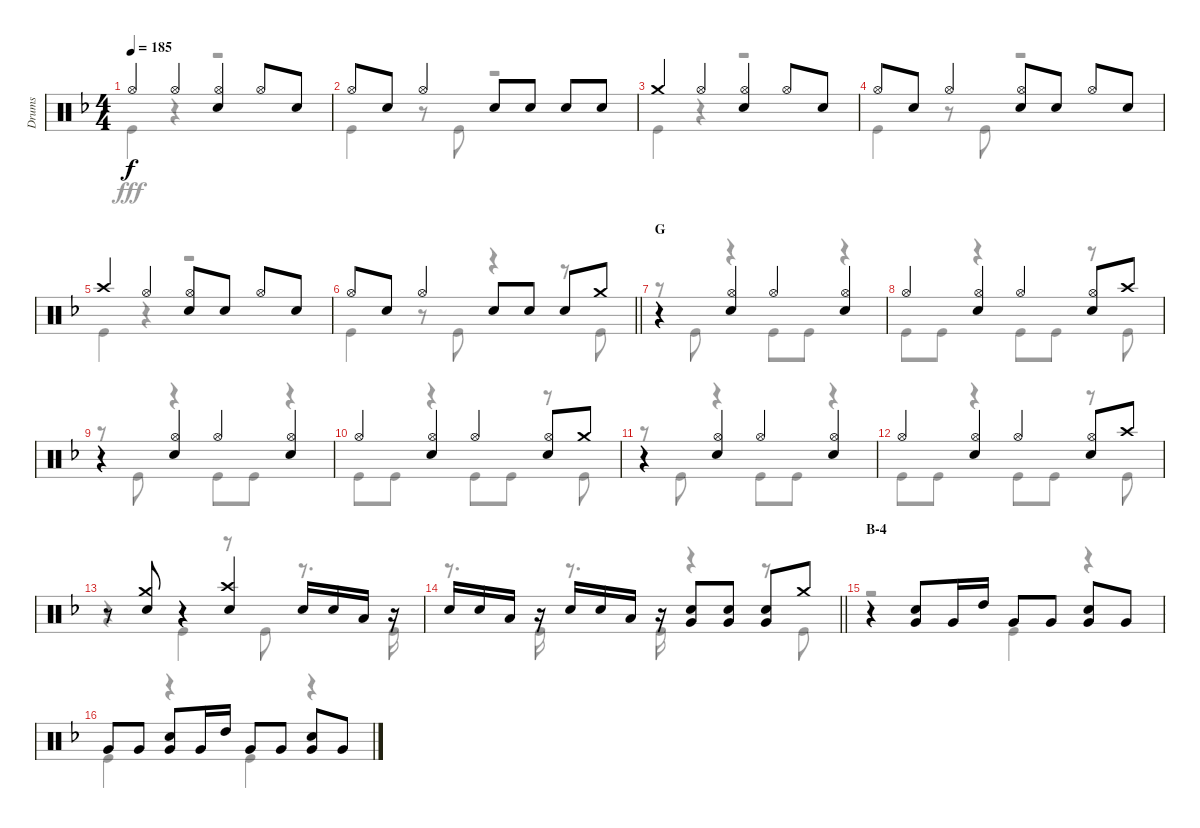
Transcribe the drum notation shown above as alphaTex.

\track ("Drums" "Drums") {instrument percussion}
\staff {score}
\articulation defaults
\voice
\ts (4 4)
\tempo 185
\clef neutral
\ks f "Hi-Hat (open)".4{dy f} "Hi-Hat (open)".4
("Hi-Hat (open)" "Snare (hit) 2").4 "Hi-Hat (open)".8 "Snare (hit) 2".8 |
"Hi-Hat (open)".8 "Snare (hit) 2".8 "Hi-Hat (open)".4 "Snare (hit) 2".8 "Snare (hit) 2".8 "Snare (hit) 2".8 "Snare (hit) 2".8 |
"Crash medium (hit)".4 "Hi-Hat (open)".4 ("Hi-Hat (open)" "Snare (hit) 2").4 "Hi-Hat (open)".8 "Snare (hit) 2".8 |
"Hi-Hat (open)".8 "Snare (hit) 2".8 "Hi-Hat (open)".4 ("Hi-Hat (open)" "Snare (hit) 2").8 "Snare (hit) 2".8 "Hi-Hat (open)".8 "Snare (hit) 2".8 |
"Crash high (hit)".4 "Hi-Hat (open)".4 ("Hi-Hat (open)" "Snare (hit) 2").8 "Snare (hit) 2".8 "Hi-Hat (open)".8 "Snare (hit) 2".8 |
\barLineRight lightlight "Hi-Hat (open)".8 "Snare (hit) 2".8 "Hi-Hat (open)".4 "Snare (hit) 2".8 "Snare (hit) 2".8 "Snare (hit) 2".8 "Crash medium (hit)".8
|
\section ("" "G")
r.4 ("Hi-Hat (open)" "Snare (hit) 2").4 "Hi-Hat (open)".4 ("Hi-Hat (open)" "Snare (hit) 2").4 |
"Hi-Hat (open)".4 ("Hi-Hat (open)" "Snare (hit) 2").4 "Hi-Hat (open)".4 ("Hi-Hat (open)" "Snare (hit) 2").8 "Crash high (hit)".8 |
r.4 ("Hi-Hat (open)" "Snare (hit) 2").4 "Hi-Hat (open)".4 ("Hi-Hat (open)" "Snare (hit) 2").4 |
"Hi-Hat (open)".4 ("Hi-Hat (open)" "Snare (hit) 2").4 "Hi-Hat (open)".4 ("Hi-Hat (open)" "Snare (hit) 2").8 "Crash medium (hit)".8 |
r.4 ("Hi-Hat (open)" "Snare (hit) 2").4 "Hi-Hat (open)".4 ("Hi-Hat (open)" "Snare (hit) 2").4 |
"Hi-Hat (open)".4 ("Hi-Hat (open)" "Snare (hit) 2").4 "Hi-Hat (open)".4 ("Hi-Hat (open)" "Snare (hit) 2").8 "Crash high (hit)".8 |
r.8 ("Crash medium (hit)" "Snare (hit) 2").8 r.4 ("Crash high (hit)" "Snare (hit) 2").4 "Snare (hit) 2".16 "Snare (hit) 2".16 "Low Tom (hit)".16 r.16 |
\barLineRight lightlight "Snare (hit) 2".16 "Snare (hit) 2".16 "Low Tom (hit)".16
r.16 "Snare (hit) 2".16 "Snare (hit) 2".16 "Low Tom (hit)".16 r.16 ("Snare (hit) 2" "Very Low Tom (hit)").8 ("Snare (hit) 2" "Very Low Tom (hit)").8 ("Snare (hit) 2" "Very Low Tom (hit)").8 "Crash medium (hit)".8 |
\section ("" "B-4")
r.4 ("Snare (hit) 2" "Very Low Tom (hit)").8 "Very Low Tom (hit)".16 "High Tom (hit)".16 "Very Low Tom (hit)".8 "Very Low Tom (hit)".8 ("Snare (hit) 2" "Very Low Tom (hit)").8 "Very Low Tom (hit)".8 |
"Very Low Tom (hit)".8 "Very Low Tom (hit)".8 ("Snare (hit) 2" "Very Low Tom (hit)").8 "Very Low Tom (hit)".16 "High Tom (hit)".16 "Very Low Tom (hit)".8 "Very Low Tom (hit)".8 ("Snare (hit) 2" "Very Low Tom (hit)").8 "Very Low Tom (hit)".8
\voice
\clef neutral
\ottava regular
\simile none
\ks f "Kick (hit)".4{dy fff}
r.4 r.2 |
"Kick (hit)".4 r.8 "Kick (hit)".8 r.2 |
"Kick (hit)".4 r.4 r.2 |
"Kick (hit)".4 r.8 "Kick (hit)".8 r.2 |
"Kick (hit)".4 r.4 r.2 |
\barLineRight lightlight "Kick (hit)".4
r.8 "Kick (hit)".8 r.4 r.8 "Kick (hit)".8 |
r.8 "Kick (hit)".8 r.4 "Kick (hit)".8 "Kick (hit)".8 r.4 |
"Kick (hit)".8 "Kick (hit)".8 r.4 "Kick (hit)".8 "Kick (hit)".8 r.8 "Kick (hit)".8 |
r.8 "Kick (hit)".8 r.4 "Kick (hit)".8 "Kick (hit)".8 r.4 |
"Kick (hit)".8 "Kick (hit)".8 r.4 "Kick (hit)".8 "Kick (hit)".8 r.8 "Kick (hit)".8 |
r.8 "Kick (hit)".8 r.4 "Kick (hit)".8 "Kick (hit)".8 r.4 |
"Kick (hit)".8 "Kick (hit)".8 r.4 "Kick (hit)".8 "Kick (hit)".8 r.8 "Kick (hit)".8 |
r.4 "Kick (hit)".4 r.8 "Kick (hit)".8 r.8{d} "Kick (hit)".16 |
\barLineRight lightlight
r.8{d} "Kick (hit)".16 r.8{d} "Kick (hit)".16 r.4 r.8 "Kick (hit)".8 |
r.2 "Kick (hit)".4 r.4 |
"Kick (hit)".4 r.4 "Kick (hit)".4 r.4
